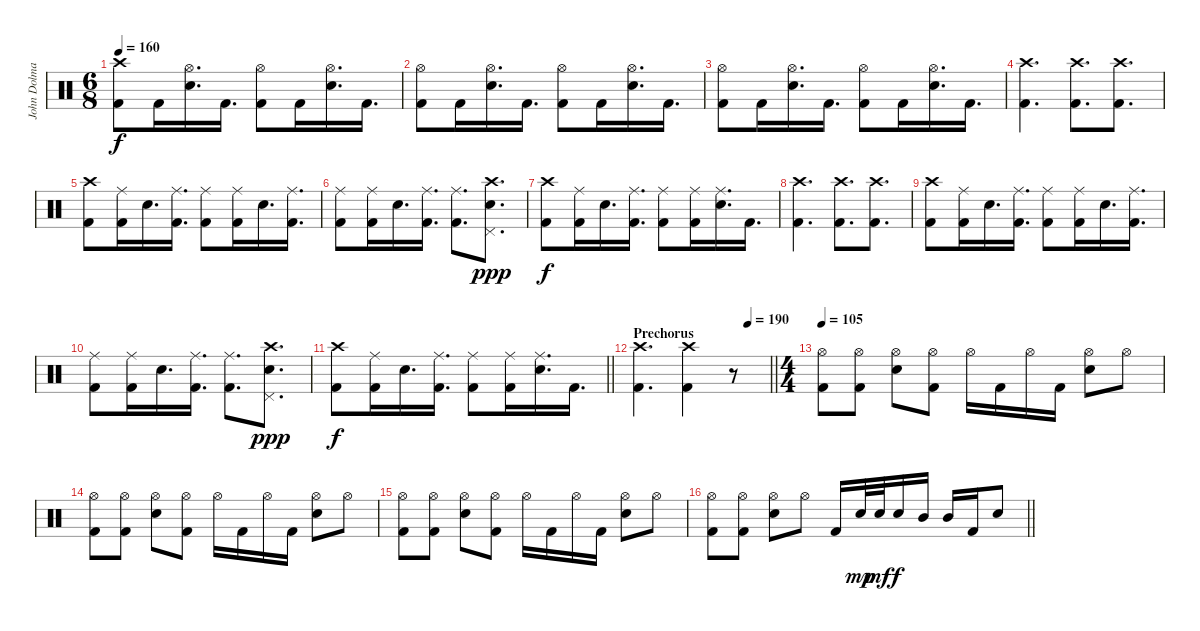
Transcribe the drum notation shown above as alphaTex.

\track ("John Dolmayan" "John Dolma") {instrument percussion}
\staff {score}
\articulation defaults
\ts (6 8)
\tempo 160
\clef neutral
\ks c
("Crash high (hit)" "Kick (hit) 2").8{dy f} "Kick (hit) 2".16 ("Hi-Hat (open)" "Electric Snare (hit)").16{d} "Kick (hit) 2".16{d} ("Hi-Hat (open)" "Kick (hit) 2").8 "Kick (hit) 2".16 ("Hi-Hat (open)" "Electric Snare (hit)").16{d} "Kick (hit) 2".16{d} |
("Hi-Hat (open)" "Kick (hit) 2").8 "Kick (hit) 2".16 ("Hi-Hat (open)" "Electric Snare (hit)").16{d} "Kick (hit) 2".16{d} ("Hi-Hat (open)" "Kick (hit) 2").8 "Kick (hit) 2".16 ("Hi-Hat (open)" "Electric Snare (hit)").16{d} "Kick (hit) 2".16{d} |
("Hi-Hat (open)" "Kick (hit) 2").8 "Kick (hit) 2".16 ("Hi-Hat (open)" "Electric Snare (hit)").16{d} "Kick (hit) 2".16{d} ("Hi-Hat (open)" "Kick (hit) 2").8 "Kick (hit) 2".16 ("Hi-Hat (open)" "Electric Snare (hit)").16{d} "Kick (hit) 2".16{d} |
("Crash high (hit)" "Kick (hit) 2").4{d} ("Crash high (hit)" "Kick (hit) 2").8{d} ("Crash high (hit)" "Kick (hit) 2").8{d} |
("Crash high (hit)" "Kick (hit) 2").8 ("Ride (middle)" "Kick (hit) 2").16 "Electric Snare (hit)".16{d} ("Ride (middle)" "Kick (hit) 2").16{d} ("Ride (middle)" "Kick (hit) 2").8 ("Ride (middle)" "Kick (hit) 2").16 "Electric Snare (hit)".16{d} ("Ride (middle)" "Kick (hit) 2").16{d} |
("Ride (middle)" "Kick (hit) 2").8 ("Ride (middle)" "Kick (hit) 2").16 "Electric Snare (hit)".16{d} ("Ride (middle)" "Kick (hit) 2").16{d} ("Ride (middle)" "Kick (hit) 2").8{d} ("Crash high (hit)" "Pedal Hi-Hat (hit)" "Electric Snare (hit)").8{d dy ppp} |
("Crash high (hit)" "Kick (hit) 2").8{dy f} ("Ride (middle)" "Kick (hit) 2").16 "Electric Snare (hit)".16{d} ("Ride (middle)" "Kick (hit) 2").16{d} ("Ride (middle)" "Kick (hit) 2").8 ("Ride (middle)" "Kick (hit) 2").16 ("Ride (middle)" "Electric Snare (hit)").16{d} "Kick (hit) 2".16{d} |
("Crash high (hit)" "Kick (hit) 2").4{d} ("Crash high (hit)" "Kick (hit) 2").8{d} ("Crash high (hit)" "Kick (hit) 2").8{d} |
("Crash high (hit)" "Kick (hit) 2").8 ("Ride (middle)" "Kick (hit) 2").16 "Electric Snare (hit)".16{d} ("Ride (middle)" "Kick (hit) 2").16{d} ("Ride (middle)" "Kick (hit) 2").8 ("Ride (middle)" "Kick (hit) 2").16 "Electric Snare (hit)".16{d} ("Ride (middle)" "Kick (hit) 2").16{d} |
("Ride (middle)" "Kick (hit) 2").8 ("Ride (middle)" "Kick (hit) 2").16 "Electric Snare (hit)".16{d} ("Ride (middle)" "Kick (hit) 2").16{d} ("Ride (middle)" "Kick (hit) 2").8{d} ("Crash high (hit)" "Pedal Hi-Hat (hit)" "Electric Snare (hit)").8{d dy ppp} |
\barLineRight lightlight
("Crash high (hit)" "Kick (hit) 2").8{dy f} ("Ride (middle)" "Kick (hit) 2").16 "Electric Snare (hit)".16{d} ("Ride (middle)" "Kick (hit) 2").16{d} ("Ride (middle)" "Kick (hit) 2").8 ("Ride (middle)" "Kick (hit) 2").16 ("Ride (middle)" "Electric Snare (hit)").16{d} "Kick (hit) 2".16{d} |
\section ("" "Prechorus")
\tempo (190 0.8333333333333334)
\barLineRight lightlight
("Crash high (hit)" "Kick (hit) 2").4{d} ("Crash high (hit)" "Kick (hit) 2").4 r.8 |
\ts (4 4)
\tempo 105
("Hi-Hat (open)" "Kick (hit) 2").8 ("Hi-Hat (open)" "Kick (hit) 2").8 ("Hi-Hat (open)" "Electric Snare (hit)").8 ("Hi-Hat (open)" "Kick (hit) 2").8 "Hi-Hat (open)".16 "Kick (hit) 2".16 "Hi-Hat (open)".16 "Kick (hit) 2".16 ("Hi-Hat (open)" "Electric Snare (hit)").8 "Hi-Hat (open)".8 |
("Hi-Hat (open)" "Kick (hit) 2").8 ("Hi-Hat (open)" "Kick (hit) 2").8 ("Hi-Hat (open)" "Electric Snare (hit)").8 ("Hi-Hat (open)" "Kick (hit) 2").8 "Hi-Hat (open)".16 "Kick (hit) 2".16 "Hi-Hat (open)".16 "Kick (hit) 2".16 ("Hi-Hat (open)" "Electric Snare (hit)").8 "Hi-Hat (open)".8 |
("Hi-Hat (open)" "Kick (hit) 2").8 ("Hi-Hat (open)" "Kick (hit) 2").8 ("Hi-Hat (open)" "Electric Snare (hit)").8 ("Hi-Hat (open)" "Kick (hit) 2").8 "Hi-Hat (open)".16 "Kick (hit) 2".16 "Hi-Hat (open)".16 "Kick (hit) 2".16 ("Hi-Hat (open)" "Electric Snare (hit)").8 "Hi-Hat (open)".8 |
\barLineRight lightlight
("Hi-Hat (open)" "Kick (hit) 2").8 ("Hi-Hat (open)" "Kick (hit) 2").8 ("Hi-Hat (open)" "Electric Snare (hit)").8 "Hi-Hat (open)".8 "Kick (hit) 2".16 "Electric Snare (hit)".32{dy mp} "Electric Snare (hit)".32{dy mf} "Electric Snare (hit)".16{dy f} "Mid Tom (hit)".16 "Mid Tom (hit)".16 "Kick (hit) 2".16 "Electric Snare (hit)".8
